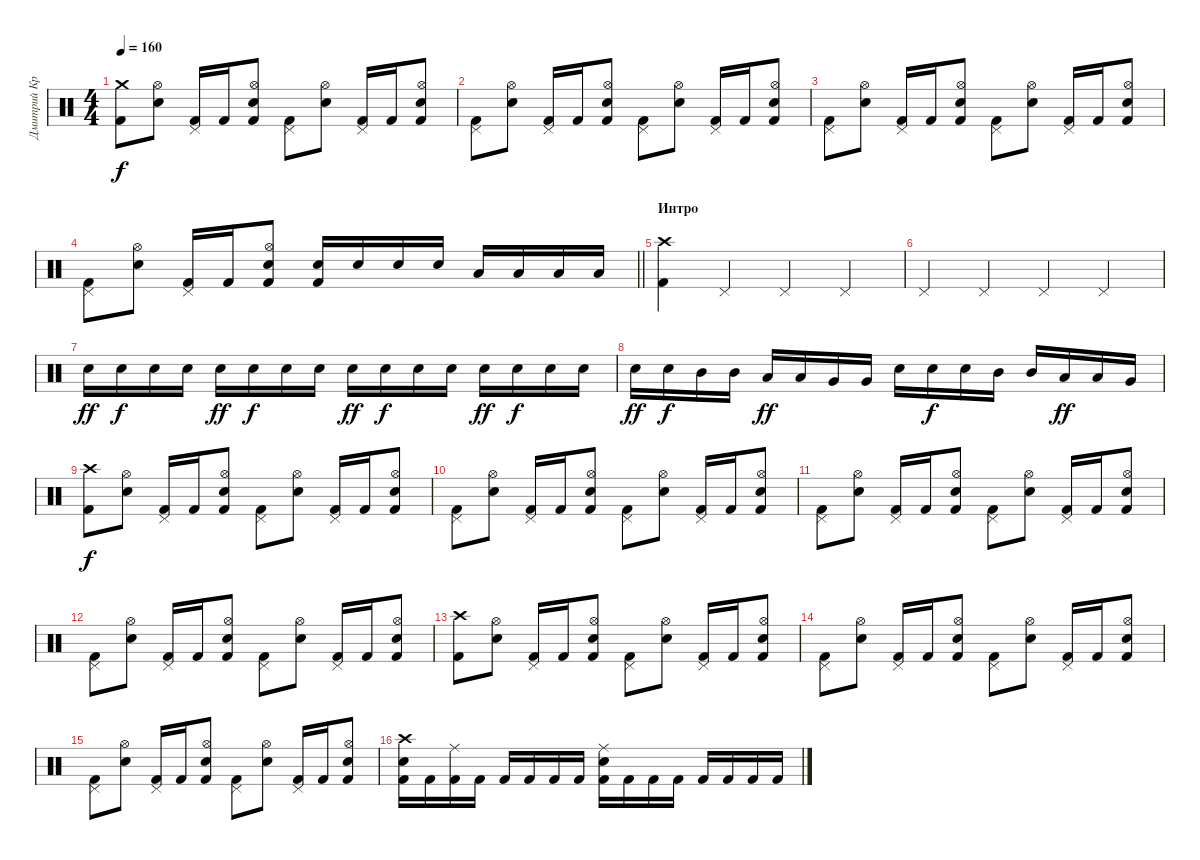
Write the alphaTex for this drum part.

\track ("Дмитрий Кривенков" "Дмитрий Кр") {instrument percussion}
\staff {score}
\articulation defaults
\ts (4 4)
\tempo 160
\clef neutral
\ks c
("Crash medium (hit)" "Kick (hit) 2").8{dy f} ("Hi-Hat (open)" "Electric Snare (hit)").8 ("Pedal Hi-Hat (hit)" "Kick (hit) 2").16 "Kick (hit) 2".16 ("Hi-Hat (open)" "Electric Snare (hit)" "Kick (hit) 2").8 ("Pedal Hi-Hat (hit)" "Kick (hit) 2").8 ("Hi-Hat (open)" "Electric Snare (hit)").8 ("Pedal Hi-Hat (hit)" "Kick (hit) 2").16 "Kick (hit) 2".16 ("Hi-Hat (open)" "Electric Snare (hit)" "Kick (hit) 2").8 |
("Pedal Hi-Hat (hit)" "Kick (hit) 2").8 ("Hi-Hat (open)" "Electric Snare (hit)").8 ("Pedal Hi-Hat (hit)" "Kick (hit) 2").16 "Kick (hit) 2".16 ("Hi-Hat (open)" "Electric Snare (hit)" "Kick (hit) 2").8 ("Pedal Hi-Hat (hit)" "Kick (hit) 2").8 ("Hi-Hat (open)" "Electric Snare (hit)").8 ("Pedal Hi-Hat (hit)" "Kick (hit) 2").16 "Kick (hit) 2".16 ("Hi-Hat (open)" "Electric Snare (hit)" "Kick (hit) 2").8 |
("Pedal Hi-Hat (hit)" "Kick (hit) 2").8 ("Hi-Hat (open)" "Electric Snare (hit)").8 ("Pedal Hi-Hat (hit)" "Kick (hit) 2").16 "Kick (hit) 2".16 ("Hi-Hat (open)" "Electric Snare (hit)" "Kick (hit) 2").8 ("Pedal Hi-Hat (hit)" "Kick (hit) 2").8 ("Hi-Hat (open)" "Electric Snare (hit)").8 ("Pedal Hi-Hat (hit)" "Kick (hit) 2").16 "Kick (hit) 2".16 ("Hi-Hat (open)" "Electric Snare (hit)" "Kick (hit) 2").8 |
\barLineRight lightlight
("Pedal Hi-Hat (hit)" "Kick (hit) 2").8 ("Hi-Hat (open)" "Electric Snare (hit)").8 ("Pedal Hi-Hat (hit)" "Kick (hit) 2").16 "Kick (hit) 2".16 ("Hi-Hat (open)" "Electric Snare (hit)" "Kick (hit) 2").8 ("Electric Snare (hit)" "Kick (hit) 2").16 "Electric Snare (hit)".16 "Electric Snare (hit)".16 "Electric Snare (hit)".16 "Low Tom (hit)".16 "Low Tom (hit)".16 "Low Tom (hit)".16 "Low Tom (hit)".16 |
\section ("" "Интро")
("Crash high (hit)" "Kick (hit) 2").4 "Pedal Hi-Hat (hit)".4 "Pedal Hi-Hat (hit)".4 "Pedal Hi-Hat (hit)".4 |
"Pedal Hi-Hat (hit)".4 "Pedal Hi-Hat (hit)".4 "Pedal Hi-Hat (hit)".4 "Pedal Hi-Hat (hit)".4 |
"Electric Snare (hit)".16{dy ff} "Electric Snare (hit)".16{dy f} "Electric Snare (hit)".16 "Electric Snare (hit)".16 "Electric Snare (hit)".16{dy ff} "Electric Snare (hit)".16{dy f} "Electric Snare (hit)".16 "Electric Snare (hit)".16 "Electric Snare (hit)".16{dy ff} "Electric Snare (hit)".16{dy f} "Electric Snare (hit)".16 "Electric Snare (hit)".16 "Electric Snare (hit)".16{dy ff} "Electric Snare (hit)".16{dy f} "Electric Snare (hit)".16 "Electric Snare (hit)".16 |
"Electric Snare (hit)".16{dy ff} "Electric Snare (hit)".16{dy f} "Mid Tom (hit)".16 "Mid Tom (hit)".16 "Low Tom (hit)".16{dy ff} "Low Tom (hit)".16 "Very Low Tom (hit)".16 "Very Low Tom (hit)".16 "Electric Snare (hit)".16 "Electric Snare (hit)".16{dy f} "Electric Snare (hit)".16 "Mid Tom (hit)".16 "Mid Tom (hit)".16 "Low Tom (hit)".16{dy ff} "Low Tom (hit)".16 "Very Low Tom (hit)".16 |
("Crash high (hit)" "Kick (hit) 2").8{dy f} ("Hi-Hat (open)" "Electric Snare (hit)").8 ("Pedal Hi-Hat (hit)" "Kick (hit) 2").16 "Kick (hit) 2".16 ("Hi-Hat (open)" "Electric Snare (hit)" "Kick (hit) 2").8 ("Pedal Hi-Hat (hit)" "Kick (hit) 2").8 ("Hi-Hat (open)" "Electric Snare (hit)").8 ("Pedal Hi-Hat (hit)" "Kick (hit) 2").16 "Kick (hit) 2".16 ("Hi-Hat (open)" "Electric Snare (hit)" "Kick (hit) 2").8 |
("Pedal Hi-Hat (hit)" "Kick (hit) 2").8 ("Hi-Hat (open)" "Electric Snare (hit)").8 ("Pedal Hi-Hat (hit)" "Kick (hit) 2").16 "Kick (hit) 2".16 ("Hi-Hat (open)" "Electric Snare (hit)" "Kick (hit) 2").8 ("Pedal Hi-Hat (hit)" "Kick (hit) 2").8 ("Hi-Hat (open)" "Electric Snare (hit)").8 ("Pedal Hi-Hat (hit)" "Kick (hit) 2").16 "Kick (hit) 2".16 ("Hi-Hat (open)" "Electric Snare (hit)" "Kick (hit) 2").8 |
("Pedal Hi-Hat (hit)" "Kick (hit) 2").8 ("Hi-Hat (open)" "Electric Snare (hit)").8 ("Pedal Hi-Hat (hit)" "Kick (hit) 2").16 "Kick (hit) 2".16 ("Hi-Hat (open)" "Electric Snare (hit)" "Kick (hit) 2").8 ("Pedal Hi-Hat (hit)" "Kick (hit) 2").8 ("Hi-Hat (open)" "Electric Snare (hit)").8 ("Pedal Hi-Hat (hit)" "Kick (hit) 2").16 "Kick (hit) 2".16 ("Hi-Hat (open)" "Electric Snare (hit)" "Kick (hit) 2").8 |
("Pedal Hi-Hat (hit)" "Kick (hit) 2").8 ("Hi-Hat (open)" "Electric Snare (hit)").8 ("Pedal Hi-Hat (hit)" "Kick (hit) 2").16 "Kick (hit) 2".16 ("Hi-Hat (open)" "Electric Snare (hit)" "Kick (hit) 2").8 ("Pedal Hi-Hat (hit)" "Kick (hit) 2").8 ("Hi-Hat (open)" "Electric Snare (hit)").8 ("Pedal Hi-Hat (hit)" "Kick (hit) 2").16 "Kick (hit) 2".16 ("Hi-Hat (open)" "Electric Snare (hit)" "Kick (hit) 2").8 |
("Crash high (hit)" "Kick (hit) 2").8 ("Hi-Hat (open)" "Electric Snare (hit)").8 ("Pedal Hi-Hat (hit)" "Kick (hit) 2").16 "Kick (hit) 2".16 ("Hi-Hat (open)" "Electric Snare (hit)" "Kick (hit) 2").8 ("Pedal Hi-Hat (hit)" "Kick (hit) 2").8 ("Hi-Hat (open)" "Electric Snare (hit)").8 ("Pedal Hi-Hat (hit)" "Kick (hit) 2").16 "Kick (hit) 2".16 ("Hi-Hat (open)" "Electric Snare (hit)" "Kick (hit) 2").8 |
("Pedal Hi-Hat (hit)" "Kick (hit) 2").8 ("Hi-Hat (open)" "Electric Snare (hit)").8 ("Pedal Hi-Hat (hit)" "Kick (hit) 2").16 "Kick (hit) 2".16 ("Hi-Hat (open)" "Electric Snare (hit)" "Kick (hit) 2").8 ("Pedal Hi-Hat (hit)" "Kick (hit) 2").8 ("Hi-Hat (open)" "Electric Snare (hit)").8 ("Pedal Hi-Hat (hit)" "Kick (hit) 2").16 "Kick (hit) 2".16 ("Hi-Hat (open)" "Electric Snare (hit)" "Kick (hit) 2").8 |
("Pedal Hi-Hat (hit)" "Kick (hit) 2").8 ("Hi-Hat (open)" "Electric Snare (hit)").8 ("Pedal Hi-Hat (hit)" "Kick (hit) 2").16 "Kick (hit) 2".16 ("Hi-Hat (open)" "Electric Snare (hit)" "Kick (hit) 2").8 ("Pedal Hi-Hat (hit)" "Kick (hit) 2").8 ("Hi-Hat (open)" "Electric Snare (hit)").8 ("Pedal Hi-Hat (hit)" "Kick (hit) 2").16 "Kick (hit) 2".16 ("Hi-Hat (open)" "Electric Snare (hit)" "Kick (hit) 2").8 |
("Crash high (hit)" "Electric Snare (hit)" "Kick (hit) 2").16 "Kick (hit) 2".16 ("Ride (middle)" "Kick (hit) 2").16 "Kick (hit) 2".16 "Kick (hit) 2".16 "Kick (hit) 2".16 "Kick (hit) 2".16 "Kick (hit) 2".16 ("Ride (middle)" "Electric Snare (hit)" "Kick (hit) 2").16 "Kick (hit) 2".16 "Kick (hit) 2".16 "Kick (hit) 2".16 "Kick (hit) 2".16 "Kick (hit) 2".16 "Kick (hit) 2".16 "Kick (hit) 2".16
